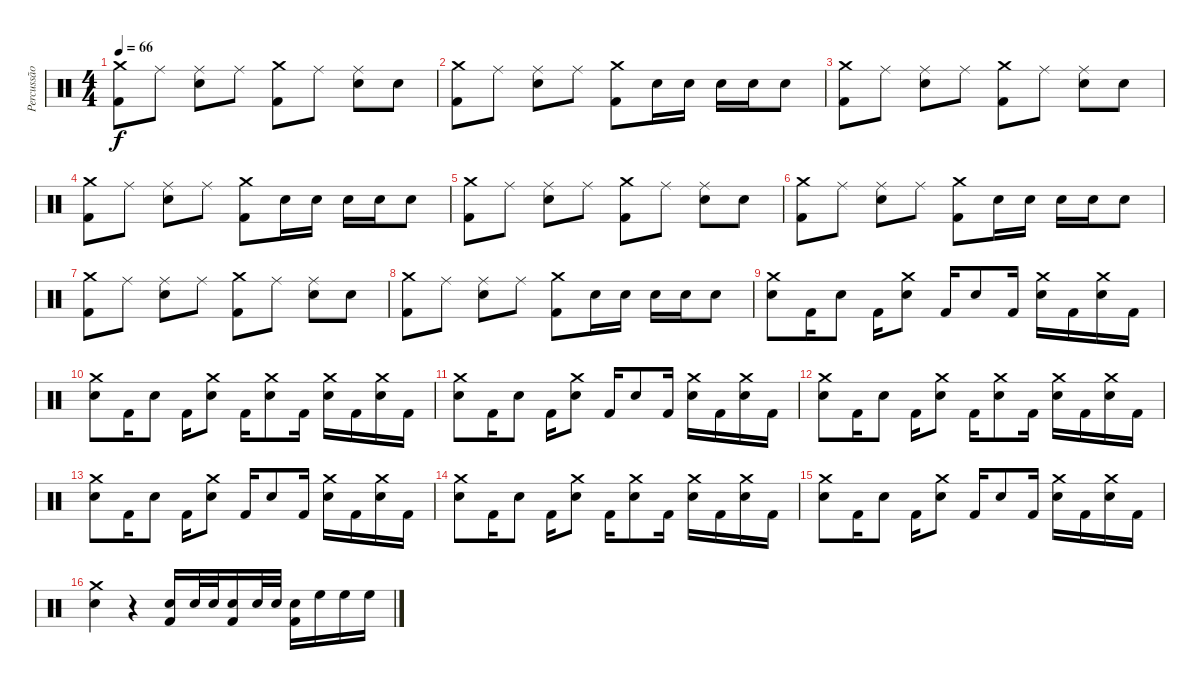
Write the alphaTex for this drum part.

\track ("Percussão" "Percussão") {instrument percussion}
\staff {score}
\articulation defaults
\ts (4 4)
\tempo 66
\clef neutral
\ks c
("Crash medium (hit)" "Kick (hit) 2").8{dy f} "Ride (middle)".8 ("Ride (middle)" "Snare (hit) 2").8 "Ride (middle)".8 ("Crash medium (hit)" "Kick (hit) 2").8 "Ride (middle)".8 ("Ride (middle)" "Snare (hit) 2").8 "Snare (hit) 2".8 |
("Crash medium (hit)" "Kick (hit) 2").8 "Ride (middle)".8 ("Ride (middle)" "Snare (hit) 2").8 "Ride (middle)".8 ("Crash medium (hit)" "Kick (hit) 2").8 "Snare (hit) 2".16 "Snare (hit) 2".16 "Snare (hit) 2".16 "Snare (hit) 2".16 "Snare (hit) 2".8 |
("Crash medium (hit)" "Kick (hit) 2").8 "Ride (middle)".8 ("Ride (middle)" "Snare (hit) 2").8 "Ride (middle)".8 ("Crash medium (hit)" "Kick (hit) 2").8 "Ride (middle)".8 ("Ride (middle)" "Snare (hit) 2").8 "Snare (hit) 2".8 |
("Crash medium (hit)" "Kick (hit) 2").8 "Ride (middle)".8 ("Ride (middle)" "Snare (hit) 2").8 "Ride (middle)".8 ("Crash medium (hit)" "Kick (hit) 2").8 "Snare (hit) 2".16 "Snare (hit) 2".16 "Snare (hit) 2".16 "Snare (hit) 2".16 "Snare (hit) 2".8 |
("Crash medium (hit)" "Kick (hit) 2").8 "Ride (middle)".8 ("Ride (middle)" "Snare (hit) 2").8 "Ride (middle)".8 ("Crash medium (hit)" "Kick (hit) 2").8 "Ride (middle)".8 ("Ride (middle)" "Snare (hit) 2").8 "Snare (hit) 2".8 |
("Crash medium (hit)" "Kick (hit) 2").8 "Ride (middle)".8 ("Ride (middle)" "Snare (hit) 2").8 "Ride (middle)".8 ("Crash medium (hit)" "Kick (hit) 2").8 "Snare (hit) 2".16 "Snare (hit) 2".16 "Snare (hit) 2".16 "Snare (hit) 2".16 "Snare (hit) 2".8 |
("Crash medium (hit)" "Kick (hit) 2").8 "Ride (middle)".8 ("Ride (middle)" "Snare (hit) 2").8 "Ride (middle)".8 ("Crash medium (hit)" "Kick (hit) 2").8 "Ride (middle)".8 ("Ride (middle)" "Snare (hit) 2").8 "Snare (hit) 2".8 |
("Crash medium (hit)" "Kick (hit) 2").8 "Ride (middle)".8 ("Ride (middle)" "Snare (hit) 2").8 "Ride (middle)".8 ("Crash medium (hit)" "Kick (hit) 2").8 "Snare (hit) 2".16 "Snare (hit) 2".16 "Snare (hit) 2".16 "Snare (hit) 2".16 "Snare (hit) 2".8 |
("Crash medium (hit)" "Snare (hit) 2").8 "Kick (hit) 2".16 "Snare (hit) 2".8 "Kick (hit) 2".16 ("Crash medium (hit)" "Snare (hit) 2").8 "Kick (hit) 2".16 "Snare (hit) 2".8 "Kick (hit) 2".16 ("Crash medium (hit)" "Snare (hit) 2").16 "Kick (hit) 2".16 ("Crash medium (hit)" "Snare (hit) 2").16 "Kick (hit) 2".16 |
("Crash medium (hit)" "Snare (hit) 2").8 "Kick (hit) 2".16 "Snare (hit) 2".8 "Kick (hit) 2".16 ("Crash medium (hit)" "Snare (hit) 2").8 "Kick (hit) 2".16 ("Crash medium (hit)" "Snare (hit) 2").8 "Kick (hit) 2".16 ("Crash medium (hit)" "Snare (hit) 2").16 "Kick (hit) 2".16 ("Crash medium (hit)" "Snare (hit) 2").16 "Kick (hit) 2".16 |
("Crash medium (hit)" "Snare (hit) 2").8 "Kick (hit) 2".16 "Snare (hit) 2".8 "Kick (hit) 2".16 ("Crash medium (hit)" "Snare (hit) 2").8 "Kick (hit) 2".16 "Snare (hit) 2".8 "Kick (hit) 2".16 ("Crash medium (hit)" "Snare (hit) 2").16 "Kick (hit) 2".16 ("Crash medium (hit)" "Snare (hit) 2").16 "Kick (hit) 2".16 |
("Crash medium (hit)" "Snare (hit) 2").8 "Kick (hit) 2".16 "Snare (hit) 2".8 "Kick (hit) 2".16 ("Crash medium (hit)" "Snare (hit) 2").8 "Kick (hit) 2".16 ("Crash medium (hit)" "Snare (hit) 2").8 "Kick (hit) 2".16 ("Crash medium (hit)" "Snare (hit) 2").16 "Kick (hit) 2".16 ("Crash medium (hit)" "Snare (hit) 2").16 "Kick (hit) 2".16 |
("Crash medium (hit)" "Snare (hit) 2").8 "Kick (hit) 2".16 "Snare (hit) 2".8 "Kick (hit) 2".16 ("Crash medium (hit)" "Snare (hit) 2").8 "Kick (hit) 2".16 "Snare (hit) 2".8 "Kick (hit) 2".16 ("Crash medium (hit)" "Snare (hit) 2").16 "Kick (hit) 2".16 ("Crash medium (hit)" "Snare (hit) 2").16 "Kick (hit) 2".16 |
("Crash medium (hit)" "Snare (hit) 2").8 "Kick (hit) 2".16 "Snare (hit) 2".8 "Kick (hit) 2".16 ("Crash medium (hit)" "Snare (hit) 2").8 "Kick (hit) 2".16 ("Crash medium (hit)" "Snare (hit) 2").8 "Kick (hit) 2".16 ("Crash medium (hit)" "Snare (hit) 2").16 "Kick (hit) 2".16 ("Crash medium (hit)" "Snare (hit) 2").16 "Kick (hit) 2".16 |
("Crash medium (hit)" "Snare (hit) 2").8 "Kick (hit) 2".16 "Snare (hit) 2".8 "Kick (hit) 2".16 ("Crash medium (hit)" "Snare (hit) 2").8 "Kick (hit) 2".16 "Snare (hit) 2".8 "Kick (hit) 2".16 ("Crash medium (hit)" "Snare (hit) 2").16 "Kick (hit) 2".16 ("Crash medium (hit)" "Snare (hit) 2").16 "Kick (hit) 2".16 |
("Crash medium (hit)" "Snare (hit) 2").4 r.4 ("Snare (hit) 2" "Kick (hit) 2").16 "Snare (hit) 2".32 "Snare (hit) 2".32 ("Snare (hit) 2" "Kick (hit) 2").16 "Snare (hit) 2".32 "Snare (hit) 2".32 ("Snare (hit) 2" "Kick (hit) 2").16 "High Floor Tom (hit)".16 "High Floor Tom (hit)".16 "High Floor Tom (hit)".16
